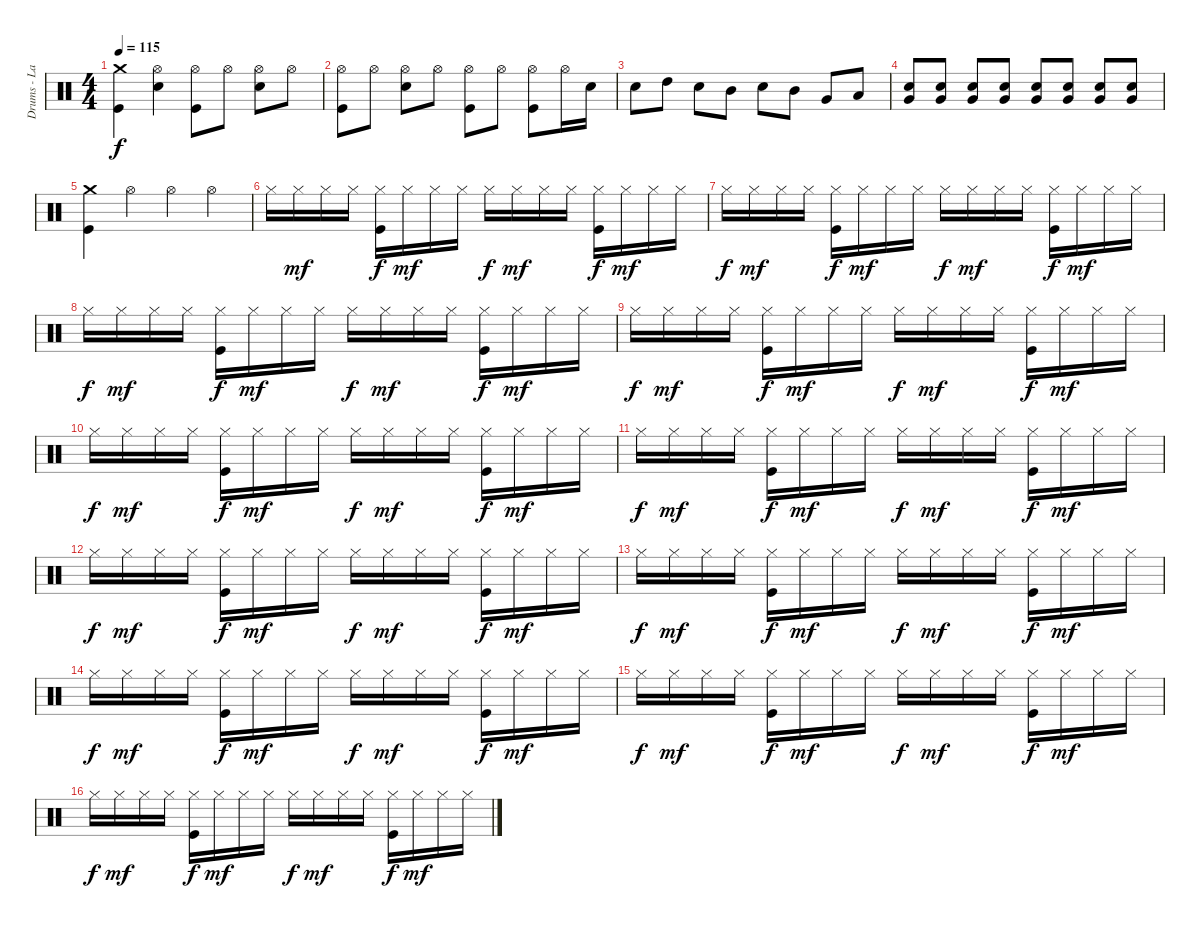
\track ("Drums - Lars Ulrich" "Drums - La") {instrument percussion}
\staff {score}
\articulation defaults
\ts (4 4)
\tempo 115
\clef neutral
\ks c
("Kick (hit)" "Crash medium (hit)").4{dy f} ("Electric Snare (hit)" "Hi-Hat (open)").4 ("Kick (hit)" "Hi-Hat (open)").8 "Hi-Hat (open)".8 ("Electric Snare (hit)" "Hi-Hat (open)").8 "Hi-Hat (open)".8 |
("Kick (hit)" "Hi-Hat (open)").8 "Hi-Hat (open)".8 ("Electric Snare (hit)" "Hi-Hat (open)").8 "Hi-Hat (open)".8 ("Kick (hit)" "Hi-Hat (open)").8 "Hi-Hat (open)".8 ("Kick (hit)" "Hi-Hat (open)").8 "Hi-Hat (open)".16 "Electric Snare (hit)".16 |
"Electric Snare (hit)".8 "High Tom (hit)".8 "Electric Snare (hit)".8 "Mid Tom (hit)".8 "Electric Snare (hit)".8 "Mid Tom (hit)".8 "Very Low Tom (hit)".8 "Low Floor Tom (hit)".8 |
("Electric Snare (hit)" "Very Low Tom (hit)").8 ("Electric Snare (hit)" "Very Low Tom (hit)").8 ("Electric Snare (hit)" "Very Low Tom (hit)").8 ("Electric Snare (hit)" "Very Low Tom (hit)").8 ("Electric Snare (hit)" "Very Low Tom (hit)").8 ("Electric Snare (hit)" "Very Low Tom (hit)").8 ("Electric Snare (hit)" "Very Low Tom (hit)").8 ("Electric Snare (hit)" "Very Low Tom (hit)").8 |
("Kick (hit)" "Crash medium (hit)").4 "Hi-Hat (open)".4 "Hi-Hat (open)".4 "Hi-Hat (open)".4 |
"Hi-Hat (closed)".16 "Hi-Hat (closed)".16{dy mf} "Hi-Hat (closed)".16 "Hi-Hat (closed)".16 ("Kick (hit)" "Hi-Hat (closed)").16{dy f} "Hi-Hat (closed)".16{dy mf} "Hi-Hat (closed)".16 "Hi-Hat (closed)".16 "Hi-Hat (closed)".16{dy f} "Hi-Hat (closed)".16{dy mf} "Hi-Hat (closed)".16 "Hi-Hat (closed)".16 ("Kick (hit)" "Hi-Hat (closed)").16{dy f} "Hi-Hat (closed)".16{dy mf} "Hi-Hat (closed)".16 "Hi-Hat (closed)".16 |
"Hi-Hat (closed)".16{dy f} "Hi-Hat (closed)".16{dy mf} "Hi-Hat (closed)".16 "Hi-Hat (closed)".16 ("Kick (hit)" "Hi-Hat (closed)").16{dy f} "Hi-Hat (closed)".16{dy mf} "Hi-Hat (closed)".16 "Hi-Hat (closed)".16 "Hi-Hat (closed)".16{dy f} "Hi-Hat (closed)".16{dy mf} "Hi-Hat (closed)".16 "Hi-Hat (closed)".16 ("Kick (hit)" "Hi-Hat (closed)").16{dy f} "Hi-Hat (closed)".16{dy mf} "Hi-Hat (closed)".16 "Hi-Hat (closed)".16 |
"Hi-Hat (closed)".16{dy f} "Hi-Hat (closed)".16{dy mf} "Hi-Hat (closed)".16 "Hi-Hat (closed)".16 ("Kick (hit)" "Hi-Hat (closed)").16{dy f} "Hi-Hat (closed)".16{dy mf} "Hi-Hat (closed)".16 "Hi-Hat (closed)".16 "Hi-Hat (closed)".16{dy f} "Hi-Hat (closed)".16{dy mf} "Hi-Hat (closed)".16 "Hi-Hat (closed)".16 ("Kick (hit)" "Hi-Hat (closed)").16{dy f} "Hi-Hat (closed)".16{dy mf} "Hi-Hat (closed)".16 "Hi-Hat (closed)".16 |
"Hi-Hat (closed)".16{dy f} "Hi-Hat (closed)".16{dy mf} "Hi-Hat (closed)".16 "Hi-Hat (closed)".16 ("Kick (hit)" "Hi-Hat (closed)").16{dy f} "Hi-Hat (closed)".16{dy mf} "Hi-Hat (closed)".16 "Hi-Hat (closed)".16 "Hi-Hat (closed)".16{dy f} "Hi-Hat (closed)".16{dy mf} "Hi-Hat (closed)".16 "Hi-Hat (closed)".16 ("Kick (hit)" "Hi-Hat (closed)").16{dy f} "Hi-Hat (closed)".16{dy mf} "Hi-Hat (closed)".16 "Hi-Hat (closed)".16 |
"Hi-Hat (closed)".16{dy f} "Hi-Hat (closed)".16{dy mf} "Hi-Hat (closed)".16 "Hi-Hat (closed)".16 ("Kick (hit)" "Hi-Hat (closed)").16{dy f} "Hi-Hat (closed)".16{dy mf} "Hi-Hat (closed)".16 "Hi-Hat (closed)".16 "Hi-Hat (closed)".16{dy f} "Hi-Hat (closed)".16{dy mf} "Hi-Hat (closed)".16 "Hi-Hat (closed)".16 ("Kick (hit)" "Hi-Hat (closed)").16{dy f} "Hi-Hat (closed)".16{dy mf} "Hi-Hat (closed)".16 "Hi-Hat (closed)".16 |
"Hi-Hat (closed)".16{dy f} "Hi-Hat (closed)".16{dy mf} "Hi-Hat (closed)".16 "Hi-Hat (closed)".16 ("Kick (hit)" "Hi-Hat (closed)").16{dy f} "Hi-Hat (closed)".16{dy mf} "Hi-Hat (closed)".16 "Hi-Hat (closed)".16 "Hi-Hat (closed)".16{dy f} "Hi-Hat (closed)".16{dy mf} "Hi-Hat (closed)".16 "Hi-Hat (closed)".16 ("Kick (hit)" "Hi-Hat (closed)").16{dy f} "Hi-Hat (closed)".16{dy mf} "Hi-Hat (closed)".16 "Hi-Hat (closed)".16 |
"Hi-Hat (closed)".16{dy f} "Hi-Hat (closed)".16{dy mf} "Hi-Hat (closed)".16 "Hi-Hat (closed)".16 ("Kick (hit)" "Hi-Hat (closed)").16{dy f} "Hi-Hat (closed)".16{dy mf} "Hi-Hat (closed)".16 "Hi-Hat (closed)".16 "Hi-Hat (closed)".16{dy f} "Hi-Hat (closed)".16{dy mf} "Hi-Hat (closed)".16 "Hi-Hat (closed)".16 ("Kick (hit)" "Hi-Hat (closed)").16{dy f} "Hi-Hat (closed)".16{dy mf} "Hi-Hat (closed)".16 "Hi-Hat (closed)".16 |
"Hi-Hat (closed)".16{dy f} "Hi-Hat (closed)".16{dy mf} "Hi-Hat (closed)".16 "Hi-Hat (closed)".16 ("Kick (hit)" "Hi-Hat (closed)").16{dy f} "Hi-Hat (closed)".16{dy mf} "Hi-Hat (closed)".16 "Hi-Hat (closed)".16 "Hi-Hat (closed)".16{dy f} "Hi-Hat (closed)".16{dy mf} "Hi-Hat (closed)".16 "Hi-Hat (closed)".16 ("Kick (hit)" "Hi-Hat (closed)").16{dy f} "Hi-Hat (closed)".16{dy mf} "Hi-Hat (closed)".16 "Hi-Hat (closed)".16 |
"Hi-Hat (closed)".16{dy f} "Hi-Hat (closed)".16{dy mf} "Hi-Hat (closed)".16 "Hi-Hat (closed)".16 ("Kick (hit)" "Hi-Hat (closed)").16{dy f} "Hi-Hat (closed)".16{dy mf} "Hi-Hat (closed)".16 "Hi-Hat (closed)".16 "Hi-Hat (closed)".16{dy f} "Hi-Hat (closed)".16{dy mf} "Hi-Hat (closed)".16 "Hi-Hat (closed)".16 ("Kick (hit)" "Hi-Hat (closed)").16{dy f} "Hi-Hat (closed)".16{dy mf} "Hi-Hat (closed)".16 "Hi-Hat (closed)".16 |
"Hi-Hat (closed)".16{dy f} "Hi-Hat (closed)".16{dy mf} "Hi-Hat (closed)".16 "Hi-Hat (closed)".16 ("Kick (hit)" "Hi-Hat (closed)").16{dy f} "Hi-Hat (closed)".16{dy mf} "Hi-Hat (closed)".16 "Hi-Hat (closed)".16 "Hi-Hat (closed)".16{dy f} "Hi-Hat (closed)".16{dy mf} "Hi-Hat (closed)".16 "Hi-Hat (closed)".16 ("Kick (hit)" "Hi-Hat (closed)").16{dy f} "Hi-Hat (closed)".16{dy mf} "Hi-Hat (closed)".16 "Hi-Hat (closed)".16 |
"Hi-Hat (closed)".16{dy f} "Hi-Hat (closed)".16{dy mf} "Hi-Hat (closed)".16 "Hi-Hat (closed)".16 ("Kick (hit)" "Hi-Hat (closed)").16{dy f} "Hi-Hat (closed)".16{dy mf} "Hi-Hat (closed)".16 "Hi-Hat (closed)".16 "Hi-Hat (closed)".16{dy f} "Hi-Hat (closed)".16{dy mf} "Hi-Hat (closed)".16 "Hi-Hat (closed)".16 ("Kick (hit)" "Hi-Hat (closed)").16{dy f} "Hi-Hat (closed)".16{dy mf} "Hi-Hat (closed)".16 "Hi-Hat (closed)".16
